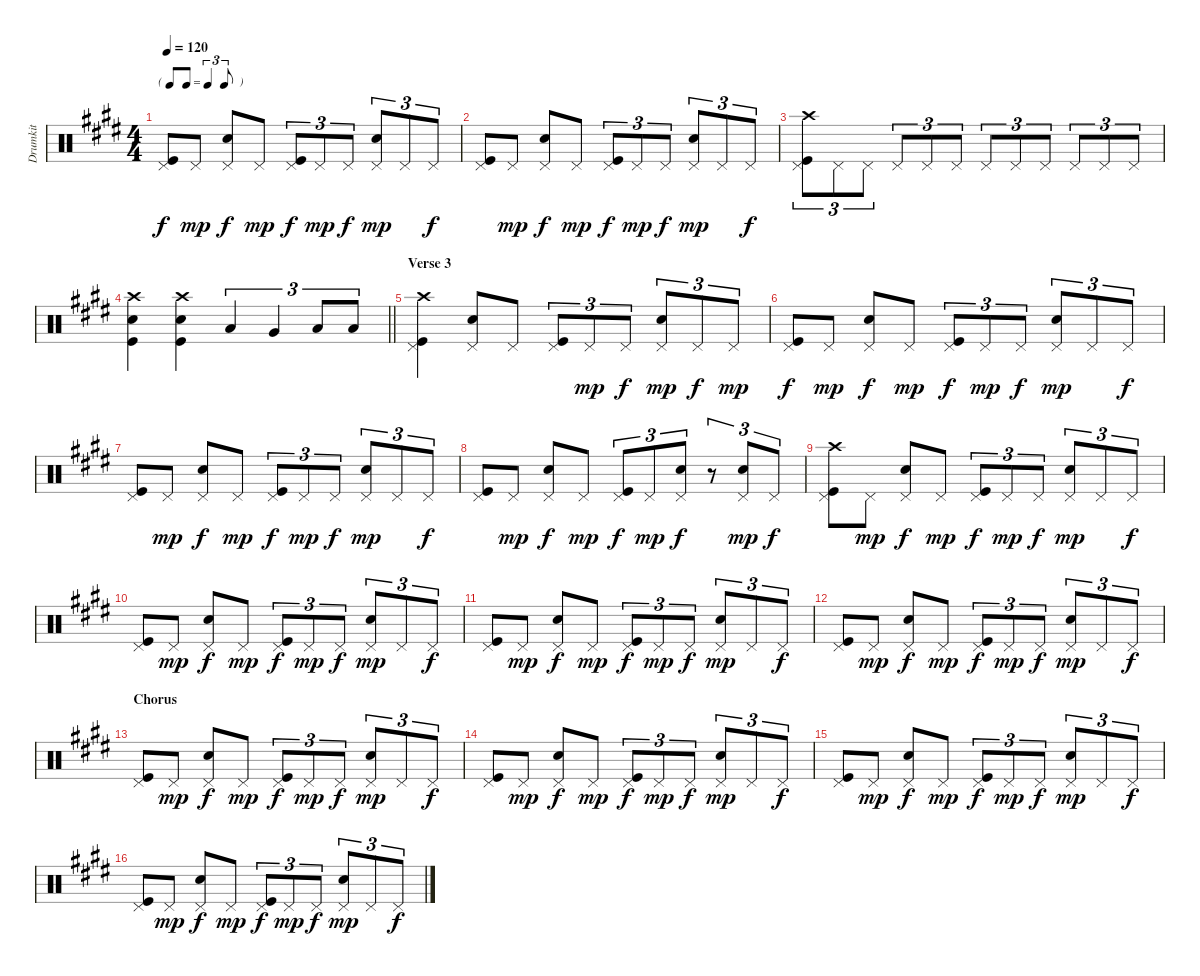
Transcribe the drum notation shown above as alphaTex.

\track ("Drumkit" "Drumkit") {instrument percussion}
\staff {score}
\articulation defaults
\ts (4 4)
\tf triplet8th
\tempo 120
\clef neutral
\ks e
("Pedal Hi-Hat (hit)" "Kick (hit)").8{dy f} "Pedal Hi-Hat (hit)".8{dy mp} ("Pedal Hi-Hat (hit)" "Snare (hit) 2").8{dy f} "Pedal Hi-Hat (hit)".8{dy mp} ("Pedal Hi-Hat (hit)" "Kick (hit)").8{tu (3 2) dy f} "Pedal Hi-Hat (hit)".8{tu (3 2) dy mp} "Pedal Hi-Hat (hit)".8{tu (3 2) dy f} ("Pedal Hi-Hat (hit)" "Snare (hit) 2").8{tu (3 2) dy mp} "Pedal Hi-Hat (hit)".8{tu (3 2)} "Pedal Hi-Hat (hit)".8{tu (3 2) dy f} |
("Pedal Hi-Hat (hit)" "Kick (hit)").8 "Pedal Hi-Hat (hit)".8{dy mp} ("Pedal Hi-Hat (hit)" "Snare (hit) 2").8{dy f} "Pedal Hi-Hat (hit)".8{dy mp} ("Pedal Hi-Hat (hit)" "Kick (hit)").8{tu (3 2) dy f} "Pedal Hi-Hat (hit)".8{tu (3 2) dy mp} "Pedal Hi-Hat (hit)".8{tu (3 2) dy f} ("Pedal Hi-Hat (hit)" "Snare (hit) 2").8{tu (3 2) dy mp} "Pedal Hi-Hat (hit)".8{tu (3 2)} "Pedal Hi-Hat (hit)".8{tu (3 2) dy f} |
("Crash high (hit)" "Pedal Hi-Hat (hit)" "Kick (hit)").8{tu (3 2)} "Pedal Hi-Hat (hit)".8{tu (3 2)} "Pedal Hi-Hat (hit)".8{tu (3 2)} "Pedal Hi-Hat (hit)".8{tu (3 2)} "Pedal Hi-Hat (hit)".8{tu (3 2)} "Pedal Hi-Hat (hit)".8{tu (3 2)} "Pedal Hi-Hat (hit)".8{tu (3 2)} "Pedal Hi-Hat (hit)".8{tu (3 2)} "Pedal Hi-Hat (hit)".8{tu (3 2)} "Pedal Hi-Hat (hit)".8{tu (3 2)} "Pedal Hi-Hat (hit)".8{tu (3 2)} "Pedal Hi-Hat (hit)".8{tu (3 2)} |
\barLineRight lightlight
("Crash high (hit)" "Snare (hit) 2" "Kick (hit)").4 ("Crash high (hit)" "Snare (hit) 2" "Kick (hit)").4 "Low Tom (hit)".4{tu (3 2)} "Very Low Tom (hit)".4{tu (3 2)} "Low Floor Tom (hit)".8{tu (3 2)} "Low Floor Tom (hit)".8{tu (3 2)} |
\section ("" "Verse 3")
("Crash high (hit)" "Pedal Hi-Hat (hit)" "Kick (hit)").4 ("Pedal Hi-Hat (hit)" "Snare (hit) 2").8 "Pedal Hi-Hat (hit)".8 ("Pedal Hi-Hat (hit)" "Kick (hit)").8{tu (3 2)} "Pedal Hi-Hat (hit)".8{tu (3 2) dy mp} "Pedal Hi-Hat (hit)".8{tu (3 2) dy f} ("Pedal Hi-Hat (hit)" "Snare (hit) 2").8{tu (3 2) dy mp} "Pedal Hi-Hat (hit)".8{tu (3 2) dy f} "Pedal Hi-Hat (hit)".8{tu (3 2) dy mp} |
("Pedal Hi-Hat (hit)" "Kick (hit)").8{dy f} "Pedal Hi-Hat (hit)".8{dy mp} ("Pedal Hi-Hat (hit)" "Snare (hit) 2").8{dy f} "Pedal Hi-Hat (hit)".8{dy mp} ("Pedal Hi-Hat (hit)" "Kick (hit)").8{tu (3 2) dy f} "Pedal Hi-Hat (hit)".8{tu (3 2) dy mp} "Pedal Hi-Hat (hit)".8{tu (3 2) dy f} ("Pedal Hi-Hat (hit)" "Snare (hit) 2").8{tu (3 2) dy mp} "Pedal Hi-Hat (hit)".8{tu (3 2)} "Pedal Hi-Hat (hit)".8{tu (3 2) dy f} |
("Pedal Hi-Hat (hit)" "Kick (hit)").8 "Pedal Hi-Hat (hit)".8{dy mp} ("Pedal Hi-Hat (hit)" "Snare (hit) 2").8{dy f} "Pedal Hi-Hat (hit)".8{dy mp} ("Pedal Hi-Hat (hit)" "Kick (hit)").8{tu (3 2) dy f} "Pedal Hi-Hat (hit)".8{tu (3 2) dy mp} "Pedal Hi-Hat (hit)".8{tu (3 2) dy f} ("Pedal Hi-Hat (hit)" "Snare (hit) 2").8{tu (3 2) dy mp} "Pedal Hi-Hat (hit)".8{tu (3 2)} "Pedal Hi-Hat (hit)".8{tu (3 2) dy f} |
("Pedal Hi-Hat (hit)" "Kick (hit)").8 "Pedal Hi-Hat (hit)".8{dy mp} ("Pedal Hi-Hat (hit)" "Snare (hit) 2").8{dy f} "Pedal Hi-Hat (hit)".8{dy mp} ("Pedal Hi-Hat (hit)" "Kick (hit)").8{tu (3 2) dy f} "Pedal Hi-Hat (hit)".8{tu (3 2) dy mp} ("Pedal Hi-Hat (hit)" "Snare (hit) 2").8{tu (3 2) dy f} r.8{tu (3 2)} ("Pedal Hi-Hat (hit)" "Snare (hit) 2").8{tu (3 2) dy mp} "Pedal Hi-Hat (hit)".8{tu (3 2) dy f} |
("Crash high (hit)" "Pedal Hi-Hat (hit)" "Kick (hit)").8 "Pedal Hi-Hat (hit)".8{dy mp} ("Pedal Hi-Hat (hit)" "Snare (hit) 2").8{dy f} "Pedal Hi-Hat (hit)".8{dy mp} ("Pedal Hi-Hat (hit)" "Kick (hit)").8{tu (3 2) dy f} "Pedal Hi-Hat (hit)".8{tu (3 2) dy mp} "Pedal Hi-Hat (hit)".8{tu (3 2) dy f} ("Pedal Hi-Hat (hit)" "Snare (hit) 2").8{tu (3 2) dy mp} "Pedal Hi-Hat (hit)".8{tu (3 2)} "Pedal Hi-Hat (hit)".8{tu (3 2) dy f} |
("Pedal Hi-Hat (hit)" "Kick (hit)").8 "Pedal Hi-Hat (hit)".8{dy mp} ("Pedal Hi-Hat (hit)" "Snare (hit) 2").8{dy f} "Pedal Hi-Hat (hit)".8{dy mp} ("Pedal Hi-Hat (hit)" "Kick (hit)").8{tu (3 2) dy f} "Pedal Hi-Hat (hit)".8{tu (3 2) dy mp} "Pedal Hi-Hat (hit)".8{tu (3 2) dy f} ("Pedal Hi-Hat (hit)" "Snare (hit) 2").8{tu (3 2) dy mp} "Pedal Hi-Hat (hit)".8{tu (3 2)} "Pedal Hi-Hat (hit)".8{tu (3 2) dy f} |
("Pedal Hi-Hat (hit)" "Kick (hit)").8 "Pedal Hi-Hat (hit)".8{dy mp} ("Pedal Hi-Hat (hit)" "Snare (hit) 2").8{dy f} "Pedal Hi-Hat (hit)".8{dy mp} ("Pedal Hi-Hat (hit)" "Kick (hit)").8{tu (3 2) dy f} "Pedal Hi-Hat (hit)".8{tu (3 2) dy mp} "Pedal Hi-Hat (hit)".8{tu (3 2) dy f} ("Pedal Hi-Hat (hit)" "Snare (hit) 2").8{tu (3 2) dy mp} "Pedal Hi-Hat (hit)".8{tu (3 2)} "Pedal Hi-Hat (hit)".8{tu (3 2) dy f} |
("Pedal Hi-Hat (hit)" "Kick (hit)").8 "Pedal Hi-Hat (hit)".8{dy mp} ("Pedal Hi-Hat (hit)" "Snare (hit) 2").8{dy f} "Pedal Hi-Hat (hit)".8{dy mp} ("Pedal Hi-Hat (hit)" "Kick (hit)").8{tu (3 2) dy f} "Pedal Hi-Hat (hit)".8{tu (3 2) dy mp} "Pedal Hi-Hat (hit)".8{tu (3 2) dy f} ("Pedal Hi-Hat (hit)" "Snare (hit) 2").8{tu (3 2) dy mp} "Pedal Hi-Hat (hit)".8{tu (3 2)} "Pedal Hi-Hat (hit)".8{tu (3 2) dy f} |
\section ("" "Chorus")
("Pedal Hi-Hat (hit)" "Kick (hit)").8 "Pedal Hi-Hat (hit)".8{dy mp} ("Pedal Hi-Hat (hit)" "Snare (hit) 2").8{dy f} "Pedal Hi-Hat (hit)".8{dy mp} ("Pedal Hi-Hat (hit)" "Kick (hit)").8{tu (3 2) dy f} "Pedal Hi-Hat (hit)".8{tu (3 2) dy mp} "Pedal Hi-Hat (hit)".8{tu (3 2) dy f} ("Pedal Hi-Hat (hit)" "Snare (hit) 2").8{tu (3 2) dy mp} "Pedal Hi-Hat (hit)".8{tu (3 2)} "Pedal Hi-Hat (hit)".8{tu (3 2) dy f} |
("Pedal Hi-Hat (hit)" "Kick (hit)").8 "Pedal Hi-Hat (hit)".8{dy mp} ("Pedal Hi-Hat (hit)" "Snare (hit) 2").8{dy f} "Pedal Hi-Hat (hit)".8{dy mp} ("Pedal Hi-Hat (hit)" "Kick (hit)").8{tu (3 2) dy f} "Pedal Hi-Hat (hit)".8{tu (3 2) dy mp} "Pedal Hi-Hat (hit)".8{tu (3 2) dy f} ("Pedal Hi-Hat (hit)" "Snare (hit) 2").8{tu (3 2) dy mp} "Pedal Hi-Hat (hit)".8{tu (3 2)} "Pedal Hi-Hat (hit)".8{tu (3 2) dy f} |
("Pedal Hi-Hat (hit)" "Kick (hit)").8 "Pedal Hi-Hat (hit)".8{dy mp} ("Pedal Hi-Hat (hit)" "Snare (hit) 2").8{dy f} "Pedal Hi-Hat (hit)".8{dy mp} ("Pedal Hi-Hat (hit)" "Kick (hit)").8{tu (3 2) dy f} "Pedal Hi-Hat (hit)".8{tu (3 2) dy mp} "Pedal Hi-Hat (hit)".8{tu (3 2) dy f} ("Pedal Hi-Hat (hit)" "Snare (hit) 2").8{tu (3 2) dy mp} "Pedal Hi-Hat (hit)".8{tu (3 2)} "Pedal Hi-Hat (hit)".8{tu (3 2) dy f} |
("Pedal Hi-Hat (hit)" "Kick (hit)").8 "Pedal Hi-Hat (hit)".8{dy mp} ("Pedal Hi-Hat (hit)" "Snare (hit) 2").8{dy f} "Pedal Hi-Hat (hit)".8{dy mp} ("Pedal Hi-Hat (hit)" "Kick (hit)").8{tu (3 2) dy f} "Pedal Hi-Hat (hit)".8{tu (3 2) dy mp} "Pedal Hi-Hat (hit)".8{tu (3 2) dy f} ("Pedal Hi-Hat (hit)" "Snare (hit) 2").8{tu (3 2) dy mp} "Pedal Hi-Hat (hit)".8{tu (3 2)} "Pedal Hi-Hat (hit)".8{tu (3 2) dy f}
